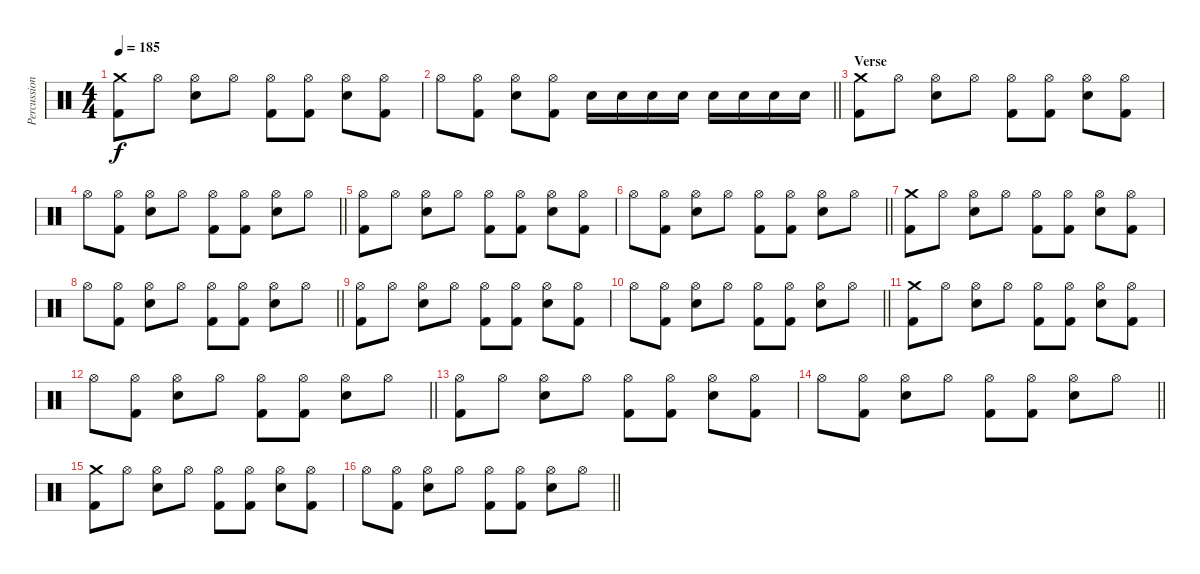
\track ("Percussion" "Percussion") {instrument percussion}
\staff {score}
\articulation defaults
\ts (4 4)
\tempo 185
\clef neutral
\ks c
("Crash medium (hit)" "Kick (hit) 2").8{dy f} "Hi-Hat (open)".8 ("Hi-Hat (open)" "Electric Snare (hit)").8 "Hi-Hat (open)".8 ("Hi-Hat (open)" "Kick (hit) 2").8 ("Hi-Hat (open)" "Kick (hit) 2").8 ("Hi-Hat (open)" "Electric Snare (hit)").8 ("Hi-Hat (open)" "Kick (hit) 2").8 |
\barLineRight lightlight "Hi-Hat (open)".8
("Hi-Hat (open)" "Kick (hit) 2").8 ("Hi-Hat (open)" "Electric Snare (hit)").8 ("Hi-Hat (open)" "Kick (hit) 2").8 "Electric Snare (hit)".16 "Electric Snare (hit)".16 "Electric Snare (hit)".16 "Electric Snare (hit)".16 "Electric Snare (hit)".16 "Electric Snare (hit)".16 "Electric Snare (hit)".16 "Electric Snare (hit)".16 |
\section ("" "Verse")
("Crash medium (hit)" "Kick (hit) 2").8 "Hi-Hat (open)".8 ("Hi-Hat (open)" "Electric Snare (hit)").8 "Hi-Hat (open)".8 ("Hi-Hat (open)" "Kick (hit) 2").8 ("Hi-Hat (open)" "Kick (hit) 2").8 ("Hi-Hat (open)" "Electric Snare (hit)").8 ("Hi-Hat (open)" "Kick (hit) 2").8 |
\barLineRight lightlight "Hi-Hat (open)".8
("Hi-Hat (open)" "Kick (hit) 2").8 ("Hi-Hat (open)" "Electric Snare (hit)").8 "Hi-Hat (open)".8 ("Hi-Hat (open)" "Kick (hit) 2").8 ("Hi-Hat (open)" "Kick (hit) 2").8 ("Hi-Hat (open)" "Electric Snare (hit)").8 "Hi-Hat (open)".8 |
("Hi-Hat (open)" "Kick (hit) 2").8 "Hi-Hat (open)".8 ("Hi-Hat (open)" "Electric Snare (hit)").8 "Hi-Hat (open)".8 ("Hi-Hat (open)" "Kick (hit) 2").8 ("Hi-Hat (open)" "Kick (hit) 2").8 ("Hi-Hat (open)" "Electric Snare (hit)").8 ("Hi-Hat (open)" "Kick (hit) 2").8 |
\barLineRight lightlight "Hi-Hat (open)".8
("Hi-Hat (open)" "Kick (hit) 2").8 ("Hi-Hat (open)" "Electric Snare (hit)").8 "Hi-Hat (open)".8 ("Hi-Hat (open)" "Kick (hit) 2").8 ("Hi-Hat (open)" "Kick (hit) 2").8 ("Hi-Hat (open)" "Electric Snare (hit)").8 "Hi-Hat (open)".8 |
("Crash medium (hit)" "Kick (hit) 2").8 "Hi-Hat (open)".8 ("Hi-Hat (open)" "Electric Snare (hit)").8 "Hi-Hat (open)".8 ("Hi-Hat (open)" "Kick (hit) 2").8 ("Hi-Hat (open)" "Kick (hit) 2").8 ("Hi-Hat (open)" "Electric Snare (hit)").8 ("Hi-Hat (open)" "Kick (hit) 2").8 |
\barLineRight lightlight "Hi-Hat (open)".8
("Hi-Hat (open)" "Kick (hit) 2").8 ("Hi-Hat (open)" "Electric Snare (hit)").8 "Hi-Hat (open)".8 ("Hi-Hat (open)" "Kick (hit) 2").8 ("Hi-Hat (open)" "Kick (hit) 2").8 ("Hi-Hat (open)" "Electric Snare (hit)").8 "Hi-Hat (open)".8 |
("Hi-Hat (open)" "Kick (hit) 2").8 "Hi-Hat (open)".8 ("Hi-Hat (open)" "Electric Snare (hit)").8 "Hi-Hat (open)".8 ("Hi-Hat (open)" "Kick (hit) 2").8 ("Hi-Hat (open)" "Kick (hit) 2").8 ("Hi-Hat (open)" "Electric Snare (hit)").8 ("Hi-Hat (open)" "Kick (hit) 2").8 |
\barLineRight lightlight "Hi-Hat (open)".8
("Hi-Hat (open)" "Kick (hit) 2").8 ("Hi-Hat (open)" "Electric Snare (hit)").8 "Hi-Hat (open)".8 ("Hi-Hat (open)" "Kick (hit) 2").8 ("Hi-Hat (open)" "Kick (hit) 2").8 ("Hi-Hat (open)" "Electric Snare (hit)").8 "Hi-Hat (open)".8 |
("Crash medium (hit)" "Kick (hit) 2").8 "Hi-Hat (open)".8 ("Hi-Hat (open)" "Electric Snare (hit)").8 "Hi-Hat (open)".8 ("Hi-Hat (open)" "Kick (hit) 2").8 ("Hi-Hat (open)" "Kick (hit) 2").8 ("Hi-Hat (open)" "Electric Snare (hit)").8 ("Hi-Hat (open)" "Kick (hit) 2").8 |
\barLineRight lightlight "Hi-Hat (open)".8
("Hi-Hat (open)" "Kick (hit) 2").8 ("Hi-Hat (open)" "Electric Snare (hit)").8 "Hi-Hat (open)".8 ("Hi-Hat (open)" "Kick (hit) 2").8 ("Hi-Hat (open)" "Kick (hit) 2").8 ("Hi-Hat (open)" "Electric Snare (hit)").8 "Hi-Hat (open)".8 |
("Hi-Hat (open)" "Kick (hit) 2").8 "Hi-Hat (open)".8 ("Hi-Hat (open)" "Electric Snare (hit)").8 "Hi-Hat (open)".8 ("Hi-Hat (open)" "Kick (hit) 2").8 ("Hi-Hat (open)" "Kick (hit) 2").8 ("Hi-Hat (open)" "Electric Snare (hit)").8 ("Hi-Hat (open)" "Kick (hit) 2").8 |
\barLineRight lightlight "Hi-Hat (open)".8
("Hi-Hat (open)" "Kick (hit) 2").8 ("Hi-Hat (open)" "Electric Snare (hit)").8 "Hi-Hat (open)".8 ("Hi-Hat (open)" "Kick (hit) 2").8 ("Hi-Hat (open)" "Kick (hit) 2").8 ("Hi-Hat (open)" "Electric Snare (hit)").8 "Hi-Hat (open)".8 |
("Crash medium (hit)" "Kick (hit) 2").8 "Hi-Hat (open)".8 ("Hi-Hat (open)" "Electric Snare (hit)").8 "Hi-Hat (open)".8 ("Hi-Hat (open)" "Kick (hit) 2").8 ("Hi-Hat (open)" "Kick (hit) 2").8 ("Hi-Hat (open)" "Electric Snare (hit)").8 ("Hi-Hat (open)" "Kick (hit) 2").8 |
\barLineRight lightlight "Hi-Hat (open)".8
("Hi-Hat (open)" "Kick (hit) 2").8 ("Hi-Hat (open)" "Electric Snare (hit)").8 "Hi-Hat (open)".8 ("Hi-Hat (open)" "Kick (hit) 2").8 ("Hi-Hat (open)" "Kick (hit) 2").8 ("Hi-Hat (open)" "Electric Snare (hit)").8 "Hi-Hat (open)".8
